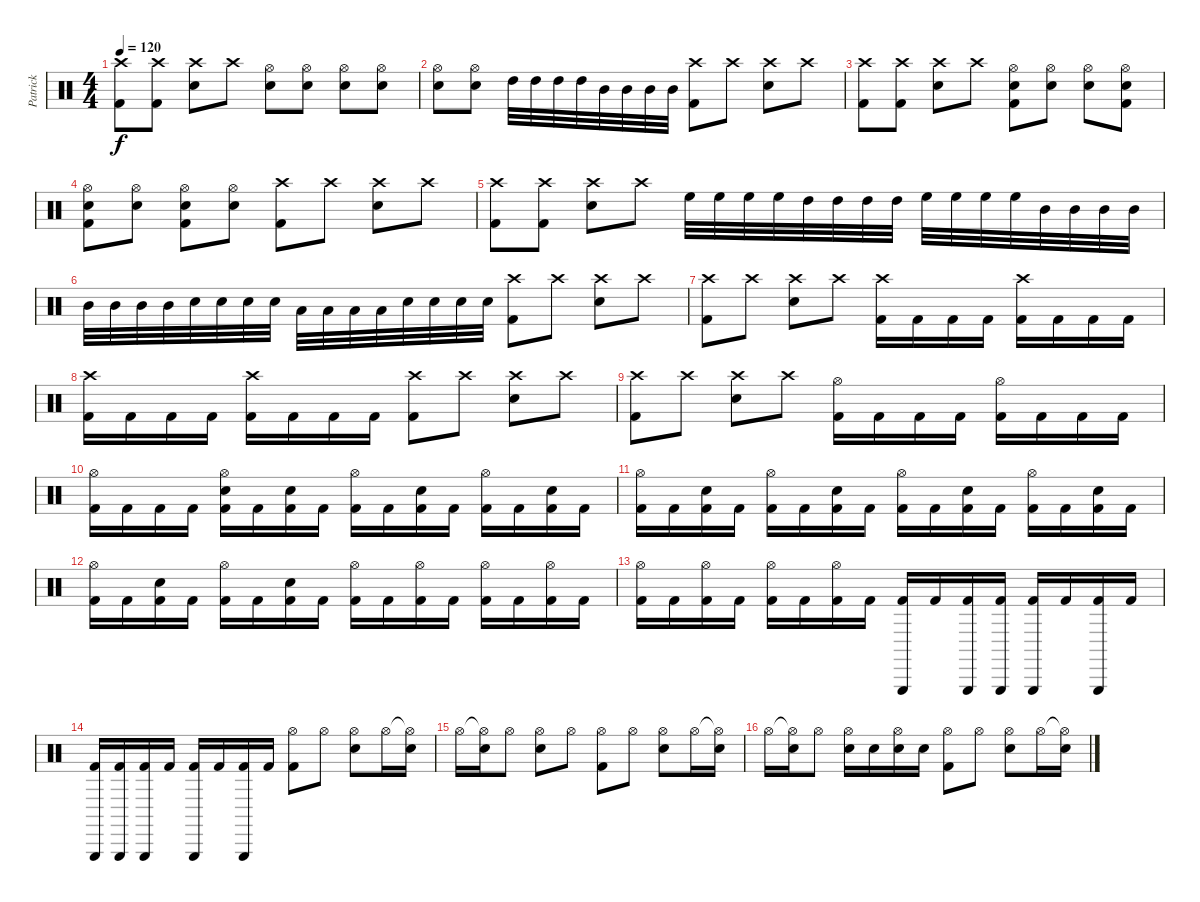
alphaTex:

\track ("Patrick" "Patrick") {instrument percussion}
\staff {score}
\articulation defaults
\ts (4 4)
\tempo 120
\clef neutral
\ks c
("Crash high (hit)" "Kick (hit) 2").8{dy f} ("Crash high (hit)" "Kick (hit) 2").8 ("Crash high (hit)" "Snare (hit) 2").8 "Crash high (hit)".8 ("Hi-Hat (open)" "Snare (hit) 2").8 ("Hi-Hat (open)" "Snare (hit) 2").8 ("Hi-Hat (open)" "Snare (hit) 2").8 ("Hi-Hat (open)" "Snare (hit) 2").8 |
("Hi-Hat (open)" "Snare (hit) 2").8 ("Hi-Hat (open)" "Snare (hit) 2").8 "High Tom (hit)".32 "High Tom (hit)".32 "High Tom (hit)".32 "High Tom (hit)".32 "Mid Tom (hit)".32 "Mid Tom (hit)".32 "Mid Tom (hit)".32 "Mid Tom (hit)".32 ("Crash high (hit)" "Kick (hit) 2").8 "Crash high (hit)".8 ("Crash high (hit)" "Snare (hit) 2").8 "Crash high (hit)".8 |
("Crash high (hit)" "Kick (hit) 2").8 ("Crash high (hit)" "Kick (hit) 2").8 ("Crash high (hit)" "Snare (hit) 2").8 "Crash high (hit)".8 ("Hi-Hat (open)" "Electric Snare (hit)" "Kick (hit) 2").8 ("Hi-Hat (open)" "Electric Snare (hit)").8 ("Hi-Hat (open)" "Electric Snare (hit)").8 ("Hi-Hat (open)" "Electric Snare (hit)" "Kick (hit) 2").8 |
("Hi-Hat (open)" "Electric Snare (hit)" "Kick (hit) 2").8 ("Hi-Hat (open)" "Electric Snare (hit)").8 ("Hi-Hat (open)" "Electric Snare (hit)" "Kick (hit) 2").8 ("Hi-Hat (open)" "Electric Snare (hit)").8 ("Crash high (hit)" "Kick (hit) 2").8 "Crash high (hit)".8 ("Crash high (hit)" "Snare (hit) 2").8 "Crash high (hit)".8 |
("Crash high (hit)" "Kick (hit) 2").8 ("Crash high (hit)" "Kick (hit) 2").8 ("Crash high (hit)" "Snare (hit) 2").8 "Crash high (hit)".8 "High Floor Tom (hit)".32 "High Floor Tom (hit)".32 "High Floor Tom (hit)".32 "High Floor Tom (hit)".32 "High Tom (hit)".32 "High Tom (hit)".32 "High Tom (hit)".32 "High Tom (hit)".32 "High Floor Tom (hit)".32 "High Floor Tom (hit)".32 "High Floor Tom (hit)".32 "High Floor Tom (hit)".32 "Mid Tom (hit)".32 "Mid Tom (hit)".32 "Mid Tom (hit)".32 "Mid Tom (hit)".32 |
"Mid Tom (hit)".32 "Mid Tom (hit)".32 "Mid Tom (hit)".32 "Mid Tom (hit)".32 "Snare (hit) 2".32 "Snare (hit) 2".32 "Snare (hit) 2".32 "Snare (hit) 2".32 "Low Tom (hit)".32 "Low Tom (hit)".32 "Low Tom (hit)".32 "Low Tom (hit)".32 "Electric Snare (hit)".32 "Electric Snare (hit)".32 "Electric Snare (hit)".32 "Electric Snare (hit)".32 ("Crash high (hit)" "Kick (hit) 2").8 "Crash high (hit)".8 ("Crash high (hit)" "Snare (hit) 2").8 "Crash high (hit)".8 |
("Crash high (hit)" "Kick (hit) 2").8 "Crash high (hit)".8 ("Crash high (hit)" "Snare (hit) 2").8 "Crash high (hit)".8 ("Crash high (hit)" "Kick (hit) 2").16 "Kick (hit) 2".16 "Kick (hit) 2".16 "Kick (hit) 2".16 ("Crash high (hit)" "Kick (hit) 2").16 "Kick (hit) 2".16 "Kick (hit) 2".16 "Kick (hit) 2".16 |
("Crash high (hit)" "Kick (hit) 2").16 "Kick (hit) 2".16 "Kick (hit) 2".16 "Kick (hit) 2".16 ("Crash high (hit)" "Kick (hit) 2").16 "Kick (hit) 2".16 "Kick (hit) 2".16 "Kick (hit) 2".16 ("Crash high (hit)" "Kick (hit) 2").8 "Crash high (hit)".8 ("Crash high (hit)" "Snare (hit) 2").8 "Crash high (hit)".8 |
("Crash high (hit)" "Kick (hit) 2").8 "Crash high (hit)".8 ("Crash high (hit)" "Snare (hit) 2").8 "Crash high (hit)".8 ("Hi-Hat (open)" "Kick (hit) 2").16 "Kick (hit) 2".16 "Kick (hit) 2".16 "Kick (hit) 2".16 ("Hi-Hat (open)" "Kick (hit) 2").16 "Kick (hit) 2".16 "Kick (hit) 2".16 "Kick (hit) 2".16 |
("Hi-Hat (open)" "Kick (hit) 2").16 "Kick (hit) 2".16 "Kick (hit) 2".16 "Kick (hit) 2".16 ("Hi-Hat (open)" "Snare (hit) 2" "Kick (hit) 2").16 "Kick (hit) 2".16 ("Snare (hit) 2" "Kick (hit) 2").16 "Kick (hit) 2".16 ("Hi-Hat (open)" "Kick (hit) 2").16 "Kick (hit) 2".16 ("Electric Snare (hit)" "Kick (hit) 2").16 "Kick (hit) 2".16 ("Hi-Hat (open)" "Kick (hit) 2").16 "Kick (hit) 2".16 ("Electric Snare (hit)" "Kick (hit) 2").16 "Kick (hit) 2".16 |
("Hi-Hat (open)" "Kick (hit) 2").16 "Kick (hit) 2".16 ("Electric Snare (hit)" "Kick (hit) 2").16 "Kick (hit) 2".16 ("Hi-Hat (open)" "Kick (hit) 2").16 "Kick (hit) 2".16 ("Electric Snare (hit)" "Kick (hit) 2").16 "Kick (hit) 2".16 ("Hi-Hat (open)" "Kick (hit) 2").16 "Kick (hit) 2".16 ("Snare (hit) 2" "Kick (hit) 2").16 "Kick (hit) 2".16 ("Hi-Hat (open)" "Kick (hit) 2").16 "Kick (hit) 2".16 ("Snare (hit) 2" "Kick (hit) 2").16 "Kick (hit) 2".16 |
("Hi-Hat (open)" "Kick (hit) 2").16 "Kick (hit) 2".16 ("Snare (hit) 2" "Kick (hit) 2").16 "Kick (hit) 2".16 ("Hi-Hat (open)" "Kick (hit) 2").16 "Kick (hit) 2".16 ("Snare (hit) 2" "Kick (hit) 2").16 "Kick (hit) 2".16 ("Hi-Hat (open)" "Kick (hit) 2").16 "Kick (hit) 2".16 ("Hi-Hat (open)" "Kick (hit) 2").16 "Kick (hit) 2".16 ("Hi-Hat (open)" "Kick (hit) 2").16 "Kick (hit) 2".16 ("Hi-Hat (open)" "Kick (hit) 2").16 "Kick (hit) 2".16 |
("Hi-Hat (open)" "Kick (hit) 2").16 "Kick (hit) 2".16 ("Hi-Hat (open)" "Kick (hit) 2").16 "Kick (hit) 2".16 ("Hi-Hat (open)" "Kick (hit) 2").16 "Kick (hit) 2".16 ("Hi-Hat (open)" "Kick (hit) 2").16 "Kick (hit) 2".16 ("Triangle (hit)" "Kick (hit) 2").16 "Kick (hit) 2".16 ("Triangle (hit)" "Kick (hit) 2").16 ("Triangle (hit)" "Kick (hit) 2").16 ("Triangle (hit)" "Kick (hit) 2").16 "Kick (hit) 2".16 ("Triangle (hit)" "Kick (hit) 2").16 "Kick (hit) 2".16 |
("Triangle (hit)" "Kick (hit) 2").16 ("Triangle (hit)" "Kick (hit) 2").16 ("Triangle (hit)" "Kick (hit) 2").16 "Kick (hit) 2".16 ("Triangle (hit)" "Kick (hit) 2").16 "Kick (hit) 2".16 ("Triangle (hit)" "Kick (hit) 2").16 "Kick (hit) 2".16 ("Hi-Hat (open)" "Kick (hit) 2").8 "Hi-Hat (open)".8 ("Hi-Hat (open)" "Snare (hit) 2").8 "Hi-Hat (open)".16 ("Hi-Hat (open)"{t} "Snare (hit) 2").16 |
"Hi-Hat (open)".16 ("Hi-Hat (open)"{t} "Snare (hit) 2").16 "Hi-Hat (open)".8 ("Hi-Hat (open)" "Snare (hit) 2").8 "Hi-Hat (open)".8 ("Hi-Hat (open)" "Kick (hit) 2").8 "Hi-Hat (open)".8 ("Hi-Hat (open)" "Snare (hit) 2").8 "Hi-Hat (open)".16 ("Hi-Hat (open)"{t} "Snare (hit) 2").16 |
"Hi-Hat (open)".16 ("Hi-Hat (open)"{t} "Snare (hit) 2").16 "Hi-Hat (open)".8 ("Hi-Hat (open)" "Snare (hit) 2").16 "Snare (hit) 2".16 ("Hi-Hat (open)" "Snare (hit) 2").16 "Snare (hit) 2".16 ("Hi-Hat (open)" "Kick (hit) 2").8 "Hi-Hat (open)".8 ("Hi-Hat (open)" "Snare (hit) 2").8 "Hi-Hat (open)".16 ("Hi-Hat (open)"{t} "Snare (hit) 2").16
